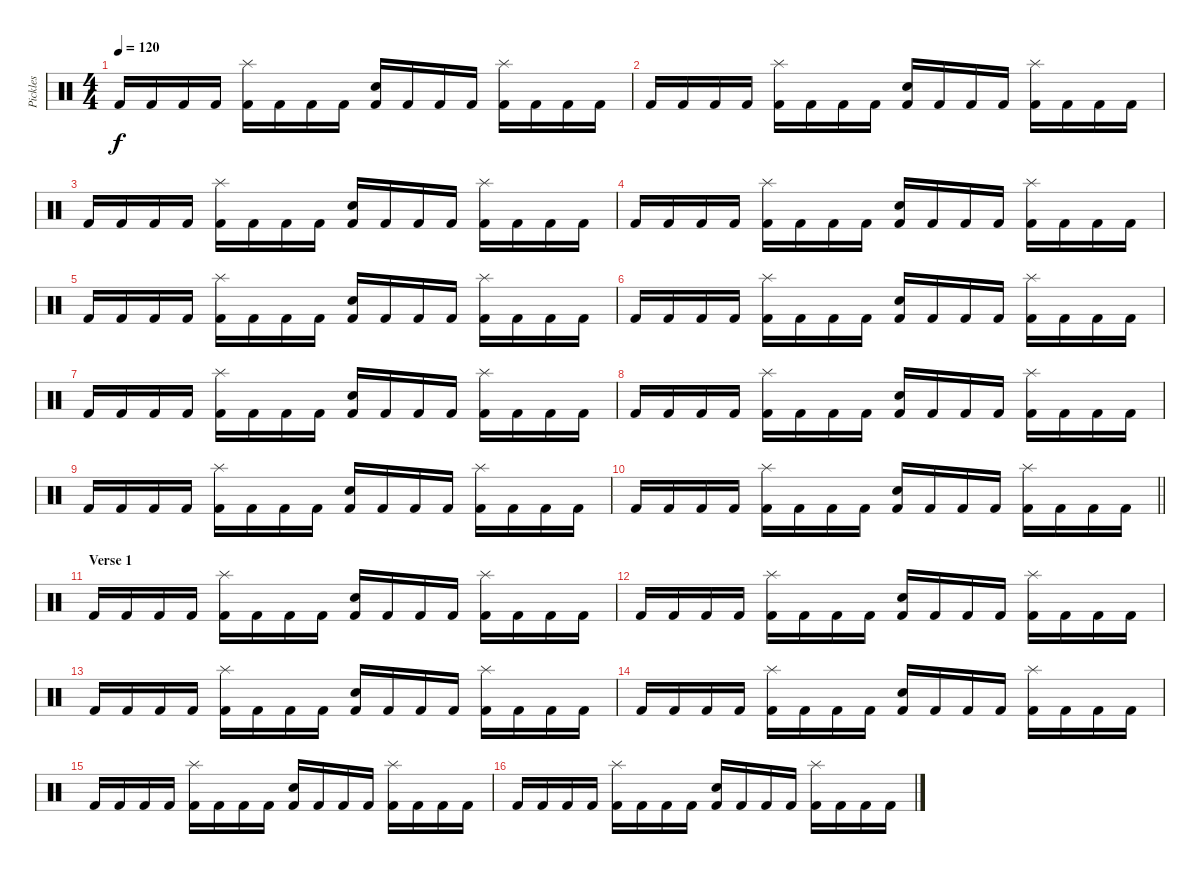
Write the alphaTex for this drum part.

\track ("Pickles" "Pickles") {instrument percussion}
\staff {score}
\articulation defaults
\ts (4 4)
\tempo 120
\clef neutral
\ks c "Kick (hit) 2".16{dy f} "Kick (hit) 2".16 "Kick (hit) 2".16 "Kick (hit) 2".16
("Splash (hit)" "Kick (hit) 2").16 "Kick (hit) 2".16 "Kick (hit) 2".16 "Kick (hit) 2".16 ("Electric Snare (hit)" "Kick (hit) 2").16 "Kick (hit) 2".16 "Kick (hit) 2".16 "Kick (hit) 2".16 ("Splash (hit)" "Kick (hit) 2").16 "Kick (hit) 2".16 "Kick (hit) 2".16 "Kick (hit) 2".16 |
"Kick (hit) 2".16 "Kick (hit) 2".16 "Kick (hit) 2".16 "Kick (hit) 2".16 ("Splash (hit)" "Kick (hit) 2").16 "Kick (hit) 2".16 "Kick (hit) 2".16 "Kick (hit) 2".16 ("Electric Snare (hit)" "Kick (hit) 2").16 "Kick (hit) 2".16 "Kick (hit) 2".16 "Kick (hit) 2".16 ("Splash (hit)" "Kick (hit) 2").16 "Kick (hit) 2".16 "Kick (hit) 2".16 "Kick (hit) 2".16 |
"Kick (hit) 2".16 "Kick (hit) 2".16 "Kick (hit) 2".16 "Kick (hit) 2".16 ("Splash (hit)" "Kick (hit) 2").16 "Kick (hit) 2".16 "Kick (hit) 2".16 "Kick (hit) 2".16 ("Electric Snare (hit)" "Kick (hit) 2").16 "Kick (hit) 2".16 "Kick (hit) 2".16 "Kick (hit) 2".16 ("Splash (hit)" "Kick (hit) 2").16 "Kick (hit) 2".16 "Kick (hit) 2".16 "Kick (hit) 2".16 |
"Kick (hit) 2".16 "Kick (hit) 2".16 "Kick (hit) 2".16 "Kick (hit) 2".16 ("Splash (hit)" "Kick (hit) 2").16 "Kick (hit) 2".16 "Kick (hit) 2".16 "Kick (hit) 2".16 ("Electric Snare (hit)" "Kick (hit) 2").16 "Kick (hit) 2".16 "Kick (hit) 2".16 "Kick (hit) 2".16 ("Splash (hit)" "Kick (hit) 2").16 "Kick (hit) 2".16 "Kick (hit) 2".16 "Kick (hit) 2".16 |
"Kick (hit) 2".16 "Kick (hit) 2".16 "Kick (hit) 2".16 "Kick (hit) 2".16 ("Splash (hit)" "Kick (hit) 2").16 "Kick (hit) 2".16 "Kick (hit) 2".16 "Kick (hit) 2".16 ("Electric Snare (hit)" "Kick (hit) 2").16 "Kick (hit) 2".16 "Kick (hit) 2".16 "Kick (hit) 2".16 ("Splash (hit)" "Kick (hit) 2").16 "Kick (hit) 2".16 "Kick (hit) 2".16 "Kick (hit) 2".16 |
"Kick (hit) 2".16 "Kick (hit) 2".16 "Kick (hit) 2".16 "Kick (hit) 2".16 ("Splash (hit)" "Kick (hit) 2").16 "Kick (hit) 2".16 "Kick (hit) 2".16 "Kick (hit) 2".16 ("Electric Snare (hit)" "Kick (hit) 2").16 "Kick (hit) 2".16 "Kick (hit) 2".16 "Kick (hit) 2".16 ("Splash (hit)" "Kick (hit) 2").16 "Kick (hit) 2".16 "Kick (hit) 2".16 "Kick (hit) 2".16 |
"Kick (hit) 2".16 "Kick (hit) 2".16 "Kick (hit) 2".16 "Kick (hit) 2".16 ("Splash (hit)" "Kick (hit) 2").16 "Kick (hit) 2".16 "Kick (hit) 2".16 "Kick (hit) 2".16 ("Electric Snare (hit)" "Kick (hit) 2").16 "Kick (hit) 2".16 "Kick (hit) 2".16 "Kick (hit) 2".16 ("Splash (hit)" "Kick (hit) 2").16 "Kick (hit) 2".16 "Kick (hit) 2".16 "Kick (hit) 2".16 |
"Kick (hit) 2".16 "Kick (hit) 2".16 "Kick (hit) 2".16 "Kick (hit) 2".16 ("Splash (hit)" "Kick (hit) 2").16 "Kick (hit) 2".16 "Kick (hit) 2".16 "Kick (hit) 2".16 ("Electric Snare (hit)" "Kick (hit) 2").16 "Kick (hit) 2".16 "Kick (hit) 2".16 "Kick (hit) 2".16 ("Splash (hit)" "Kick (hit) 2").16 "Kick (hit) 2".16 "Kick (hit) 2".16 "Kick (hit) 2".16 |
"Kick (hit) 2".16 "Kick (hit) 2".16 "Kick (hit) 2".16 "Kick (hit) 2".16 ("Splash (hit)" "Kick (hit) 2").16 "Kick (hit) 2".16 "Kick (hit) 2".16 "Kick (hit) 2".16 ("Electric Snare (hit)" "Kick (hit) 2").16 "Kick (hit) 2".16 "Kick (hit) 2".16 "Kick (hit) 2".16 ("Splash (hit)" "Kick (hit) 2").16 "Kick (hit) 2".16 "Kick (hit) 2".16 "Kick (hit) 2".16 |
\barLineRight lightlight "Kick (hit) 2".16 "Kick (hit) 2".16 "Kick (hit) 2".16 "Kick (hit) 2".16
("Splash (hit)" "Kick (hit) 2").16 "Kick (hit) 2".16 "Kick (hit) 2".16 "Kick (hit) 2".16 ("Electric Snare (hit)" "Kick (hit) 2").16 "Kick (hit) 2".16 "Kick (hit) 2".16 "Kick (hit) 2".16 ("Splash (hit)" "Kick (hit) 2").16 "Kick (hit) 2".16 "Kick (hit) 2".16 "Kick (hit) 2".16 |
\section ("" "Verse 1")
"Kick (hit) 2".16 "Kick (hit) 2".16 "Kick (hit) 2".16 "Kick (hit) 2".16 ("Splash (hit)" "Kick (hit) 2").16 "Kick (hit) 2".16 "Kick (hit) 2".16 "Kick (hit) 2".16 ("Electric Snare (hit)" "Kick (hit) 2").16 "Kick (hit) 2".16 "Kick (hit) 2".16 "Kick (hit) 2".16 ("Splash (hit)" "Kick (hit) 2").16 "Kick (hit) 2".16 "Kick (hit) 2".16 "Kick (hit) 2".16 |
"Kick (hit) 2".16 "Kick (hit) 2".16 "Kick (hit) 2".16 "Kick (hit) 2".16 ("Splash (hit)" "Kick (hit) 2").16 "Kick (hit) 2".16 "Kick (hit) 2".16 "Kick (hit) 2".16 ("Electric Snare (hit)" "Kick (hit) 2").16 "Kick (hit) 2".16 "Kick (hit) 2".16 "Kick (hit) 2".16 ("Splash (hit)" "Kick (hit) 2").16 "Kick (hit) 2".16 "Kick (hit) 2".16 "Kick (hit) 2".16 |
"Kick (hit) 2".16 "Kick (hit) 2".16 "Kick (hit) 2".16 "Kick (hit) 2".16 ("Splash (hit)" "Kick (hit) 2").16 "Kick (hit) 2".16 "Kick (hit) 2".16 "Kick (hit) 2".16 ("Electric Snare (hit)" "Kick (hit) 2").16 "Kick (hit) 2".16 "Kick (hit) 2".16 "Kick (hit) 2".16 ("Splash (hit)" "Kick (hit) 2").16 "Kick (hit) 2".16 "Kick (hit) 2".16 "Kick (hit) 2".16 |
"Kick (hit) 2".16 "Kick (hit) 2".16 "Kick (hit) 2".16 "Kick (hit) 2".16 ("Splash (hit)" "Kick (hit) 2").16 "Kick (hit) 2".16 "Kick (hit) 2".16 "Kick (hit) 2".16 ("Electric Snare (hit)" "Kick (hit) 2").16 "Kick (hit) 2".16 "Kick (hit) 2".16 "Kick (hit) 2".16 ("Splash (hit)" "Kick (hit) 2").16 "Kick (hit) 2".16 "Kick (hit) 2".16 "Kick (hit) 2".16 |
"Kick (hit) 2".16 "Kick (hit) 2".16 "Kick (hit) 2".16 "Kick (hit) 2".16 ("Splash (hit)" "Kick (hit) 2").16 "Kick (hit) 2".16 "Kick (hit) 2".16 "Kick (hit) 2".16 ("Electric Snare (hit)" "Kick (hit) 2").16 "Kick (hit) 2".16 "Kick (hit) 2".16 "Kick (hit) 2".16 ("Splash (hit)" "Kick (hit) 2").16 "Kick (hit) 2".16 "Kick (hit) 2".16 "Kick (hit) 2".16 |
"Kick (hit) 2".16 "Kick (hit) 2".16 "Kick (hit) 2".16 "Kick (hit) 2".16 ("Splash (hit)" "Kick (hit) 2").16 "Kick (hit) 2".16 "Kick (hit) 2".16 "Kick (hit) 2".16 ("Electric Snare (hit)" "Kick (hit) 2").16 "Kick (hit) 2".16 "Kick (hit) 2".16 "Kick (hit) 2".16 ("Splash (hit)" "Kick (hit) 2").16 "Kick (hit) 2".16 "Kick (hit) 2".16 "Kick (hit) 2".16
